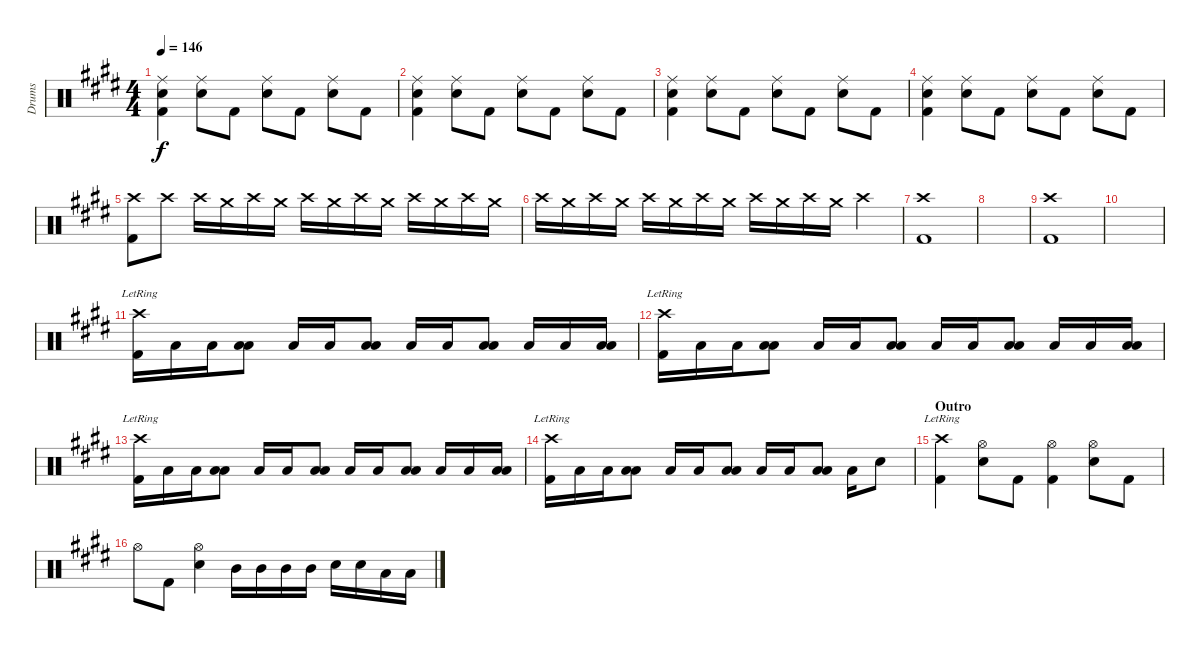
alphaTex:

\track ("Drums" "Drums") {instrument percussion}
\staff {score}
\articulation defaults
\ts (4 4)
\tempo 146
\clef neutral
\ks e
("Kick (hit) 2" "Snare (hit) 2" "Ride (middle)").4{dy f} ("Snare (hit) 2" "Ride (middle)").8 "Kick (hit) 2".8 ("Snare (hit) 2" "Ride (middle)").8 "Kick (hit) 2".8 ("Snare (hit) 2" "Ride (middle)").8 "Kick (hit) 2".8 |
("Kick (hit) 2" "Snare (hit) 2" "Ride (middle)").4 ("Snare (hit) 2" "Ride (middle)").8 "Kick (hit) 2".8 ("Snare (hit) 2" "Ride (middle)").8 "Kick (hit) 2".8 ("Snare (hit) 2" "Ride (middle)").8 "Kick (hit) 2".8 |
("Kick (hit) 2" "Snare (hit) 2" "Ride (middle)").4 ("Snare (hit) 2" "Ride (middle)").8 "Kick (hit) 2".8 ("Snare (hit) 2" "Ride (middle)").8 "Kick (hit) 2".8 ("Snare (hit) 2" "Ride (middle)").8 "Kick (hit) 2".8 |
("Kick (hit) 2" "Snare (hit) 2" "Ride (middle)").4 ("Snare (hit) 2" "Ride (middle)").8 "Kick (hit) 2".8 ("Snare (hit) 2" "Ride (middle)").8 "Kick (hit) 2".8 ("Snare (hit) 2" "Ride (middle)").8 "Kick (hit) 2".8 |
("Kick (hit) 2" "Crash high (hit)").8 "Crash high (hit)".8 "Crash high (hit)".16 "Crash medium (hit)".16 "Crash high (hit)".16 "Crash medium (hit)".16 "Crash high (hit)".16 "Crash medium (hit)".16 "Crash high (hit)".16 "Crash medium (hit)".16 "Crash high (hit)".16 "Crash medium (hit)".16 "Crash high (hit)".16 "Crash medium (hit)".16 |
"Crash high (hit)".16 "Crash medium (hit)".16 "Crash high (hit)".16 "Crash medium (hit)".16 "Crash high (hit)".16 "Crash medium (hit)".16 "Crash high (hit)".16 "Crash medium (hit)".16 "Crash high (hit)".16 "Crash medium (hit)".16 "Crash high (hit)".16 "Crash medium (hit)".16 "Crash high (hit)".4 |
("Kick (hit) 2" "Crash high (hit)").1 |
|
("Kick (hit) 2" "Crash high (hit)").1 |
|
("Kick (hit) 2" "Crash high (hit)"{lr}).16 "Low Floor Tom (hit)".16 "Low Floor Tom (hit)".16 ("Low Floor Tom (hit)" "Low Floor Tom (hit)").8 "Low Floor Tom (hit)".16 "Low Floor Tom (hit)".16 ("Low Floor Tom (hit)" "Low Floor Tom (hit)").8 "Low Floor Tom (hit)".16 "Low Floor Tom (hit)".16 ("Low Floor Tom (hit)" "Low Floor Tom (hit)").8 "Low Floor Tom (hit)".16 "Low Floor Tom (hit)".16 ("Low Floor Tom (hit)" "Low Floor Tom (hit)").16 |
("Kick (hit) 2" "Crash high (hit)"{lr}).16 "Low Floor Tom (hit)".16 "Low Floor Tom (hit)".16 ("Low Floor Tom (hit)" "Low Floor Tom (hit)").8 "Low Floor Tom (hit)".16 "Low Floor Tom (hit)".16 ("Low Floor Tom (hit)" "Low Floor Tom (hit)").8 "Low Floor Tom (hit)".16 "Low Floor Tom (hit)".16 ("Low Floor Tom (hit)" "Low Floor Tom (hit)").8 "Low Floor Tom (hit)".16 "Low Floor Tom (hit)".16 ("Low Floor Tom (hit)" "Low Floor Tom (hit)").16 |
("Kick (hit) 2" "Crash high (hit)"{lr}).16 "Low Floor Tom (hit)".16 "Low Floor Tom (hit)".16 ("Low Floor Tom (hit)" "Low Floor Tom (hit)").8 "Low Floor Tom (hit)".16 "Low Floor Tom (hit)".16 ("Low Floor Tom (hit)" "Low Floor Tom (hit)").8 "Low Floor Tom (hit)".16 "Low Floor Tom (hit)".16 ("Low Floor Tom (hit)" "Low Floor Tom (hit)").8 "Low Floor Tom (hit)".16 "Low Floor Tom (hit)".16 ("Low Floor Tom (hit)" "Low Floor Tom (hit)").16 |
("Kick (hit) 2" "Crash high (hit)"{lr}).16 "Low Floor Tom (hit)".16 "Low Floor Tom (hit)".16 ("Low Floor Tom (hit)" "Low Floor Tom (hit)").8 "Low Floor Tom (hit)".16 "Low Floor Tom (hit)".16 ("Low Floor Tom (hit)" "Low Floor Tom (hit)").8 "Low Floor Tom (hit)".16 "Low Floor Tom (hit)".16 ("Low Floor Tom (hit)" "Low Floor Tom (hit)").8 "Low Floor Tom (hit)".16 "Snare (hit) 2".8 |
\section ("" "Outro")
("Kick (hit) 2" "Crash high (hit)"{lr}).4 ("Snare (hit) 2" "Hi-Hat (open)").8 "Kick (hit) 2".8 ("Kick (hit) 2" "Hi-Hat (open)").4 ("Snare (hit) 2" "Hi-Hat (open)").8 "Kick (hit) 2".8 |
"Hi-Hat (open)".8 "Kick (hit) 2".8 ("Snare (hit) 2" "Hi-Hat (open)").4 "Mid Tom (hit)".16 "Mid Tom (hit)".16 "Mid Tom (hit)".16 "Mid Tom (hit)".16 "Snare (hit) 2".16 "Snare (hit) 2".16 "Low Floor Tom (hit)".16 "Low Floor Tom (hit)".16
